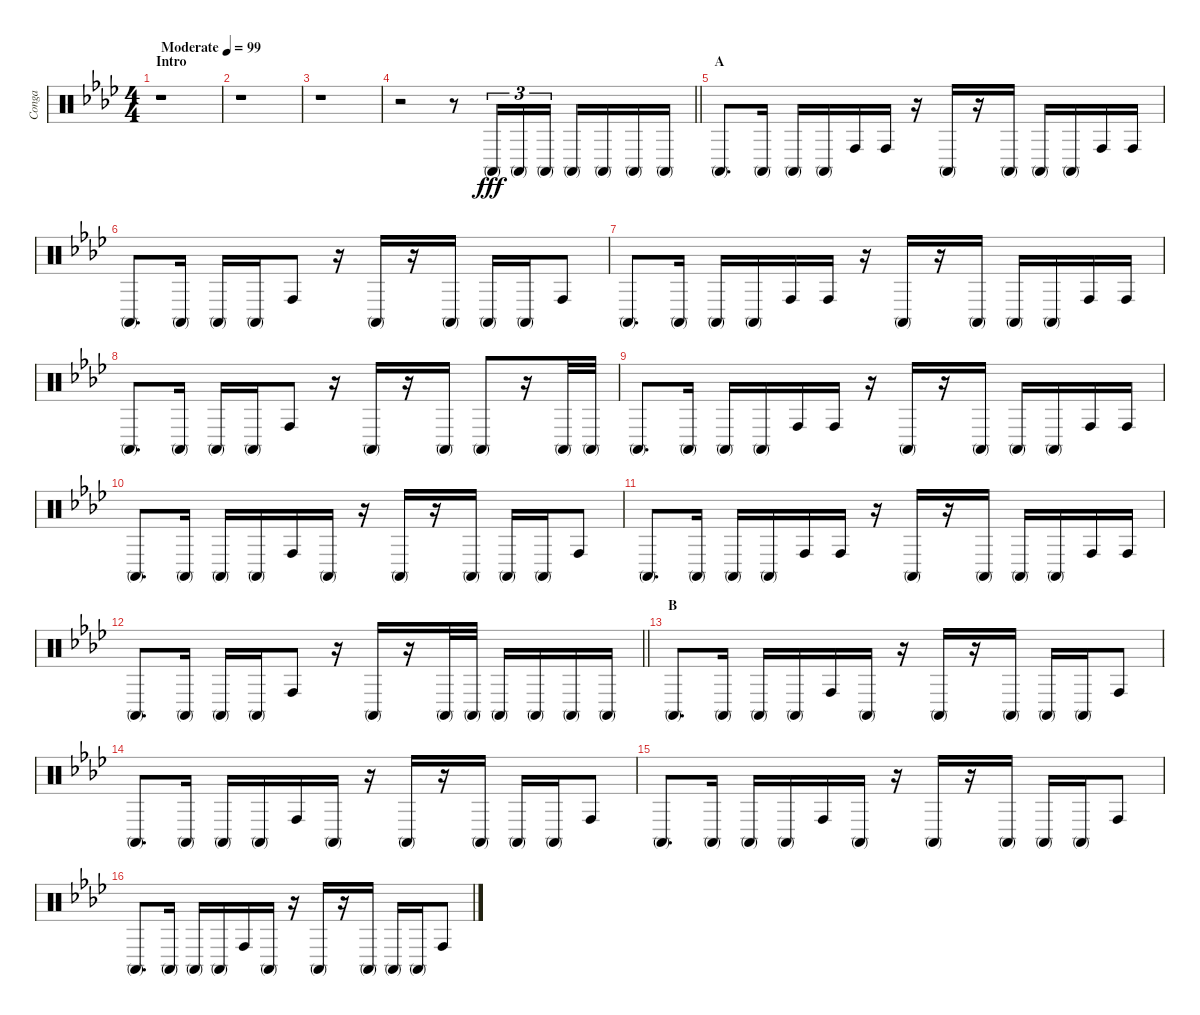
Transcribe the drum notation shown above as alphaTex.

\track ("Conga" "Conga") {instrument percussion}
\staff {score}
\articulation defaults
\ts (4 4)
\section ("" "Intro")
\tempo (99 "Moderate")
\clef neutral
\ks ab
r.1{dy fff} |
r.1 |
r.1 |
\barLineRight lightlight
r.2 r.8 "Conga high (mute)".16{tu (3 2)} "Conga high (mute)".16{tu (3 2)} "Conga high (mute)".16{tu (3 2)} "Conga high (mute)".16 "Conga high (mute)".16 "Conga high (mute)".16 "Conga high (mute)".16 |
\section ("" "A")
"Conga high (mute)".8{d} "Conga high (mute)".16 "Conga high (mute)".16 "Conga high (mute)".16 "Conga high (hit)".16 "Conga high (hit)".16 r.16 "Conga high (mute)".16 r.16 "Conga high (mute)".16 "Conga high (mute)".16 "Conga high (mute)".16 "Conga high (hit)".16 "Conga high (hit)".16 |
"Conga high (mute)".8{d} "Conga high (mute)".16 "Conga high (mute)".16 "Conga high (mute)".16 "Conga high (hit)".8 r.16 "Conga high (mute)".16 r.16 "Conga high (mute)".16 "Conga high (mute)".16 "Conga high (mute)".16 "Conga high (hit)".8 |
"Conga high (mute)".8{d} "Conga high (mute)".16 "Conga high (mute)".16 "Conga high (mute)".16 "Conga high (hit)".16 "Conga high (hit)".16 r.16 "Conga high (mute)".16 r.16 "Conga high (mute)".16 "Conga high (mute)".16 "Conga high (mute)".16 "Conga high (hit)".16 "Conga high (hit)".16 |
"Conga high (mute)".8{d} "Conga high (mute)".16 "Conga high (mute)".16 "Conga high (mute)".16 "Conga high (hit)".8 r.16 "Conga high (mute)".16 r.16 "Conga high (mute)".16 "Conga high (mute)".8 r.16 "Conga high (mute)".32 "Conga high (mute)".32 |
"Conga high (mute)".8{d} "Conga high (mute)".16 "Conga high (mute)".16 "Conga high (mute)".16 "Conga high (hit)".16 "Conga high (hit)".16 r.16 "Conga high (mute)".16 r.16 "Conga high (mute)".16 "Conga high (mute)".16 "Conga high (mute)".16 "Conga high (hit)".16 "Conga high (hit)".16 |
"Conga high (mute)".8{d} "Conga high (mute)".16 "Conga high (mute)".16 "Conga high (mute)".16 "Conga high (hit)".16 "Conga high (mute)".16 r.16 "Conga high (mute)".16 r.16 "Conga high (mute)".16 "Conga high (mute)".16 "Conga high (mute)".16 "Conga high (hit)".8 |
"Conga high (mute)".8{d} "Conga high (mute)".16 "Conga high (mute)".16 "Conga high (mute)".16 "Conga high (hit)".16 "Conga high (hit)".16 r.16 "Conga high (mute)".16 r.16 "Conga high (mute)".16 "Conga high (mute)".16 "Conga high (mute)".16 "Conga high (hit)".16 "Conga high (hit)".16 |
\barLineRight lightlight "Conga high (mute)".8{d} "Conga high (mute)".16 "Conga high (mute)".16 "Conga high (mute)".16 "Conga high (hit)".8
r.16 "Conga high (mute)".16 r.16 "Conga high (mute)".32 "Conga high (mute)".32 "Conga high (mute)".16 "Conga high (mute)".16 "Conga high (mute)".16 "Conga high (mute)".16 |
\section ("" "B")
"Conga high (mute)".8{d} "Conga high (mute)".16 "Conga high (mute)".16 "Conga high (mute)".16 "Conga high (hit)".16 "Conga high (mute)".16 r.16 "Conga high (mute)".16 r.16 "Conga high (mute)".16 "Conga high (mute)".16 "Conga high (mute)".16 "Conga high (hit)".8 |
"Conga high (mute)".8{d} "Conga high (mute)".16 "Conga high (mute)".16 "Conga high (mute)".16 "Conga high (hit)".16 "Conga high (mute)".16 r.16 "Conga high (mute)".16 r.16 "Conga high (mute)".16 "Conga high (mute)".16 "Conga high (mute)".16 "Conga high (hit)".8 |
"Conga high (mute)".8{d} "Conga high (mute)".16 "Conga high (mute)".16 "Conga high (mute)".16 "Conga high (hit)".16 "Conga high (mute)".16 r.16 "Conga high (mute)".16 r.16 "Conga high (mute)".16 "Conga high (mute)".16 "Conga high (mute)".16 "Conga high (hit)".8 |
"Conga high (mute)".8{d} "Conga high (mute)".16 "Conga high (mute)".16 "Conga high (mute)".16 "Conga high (hit)".16 "Conga high (mute)".16 r.16 "Conga high (mute)".16 r.16 "Conga high (mute)".16 "Conga high (mute)".16 "Conga high (mute)".16 "Conga high (hit)".8
